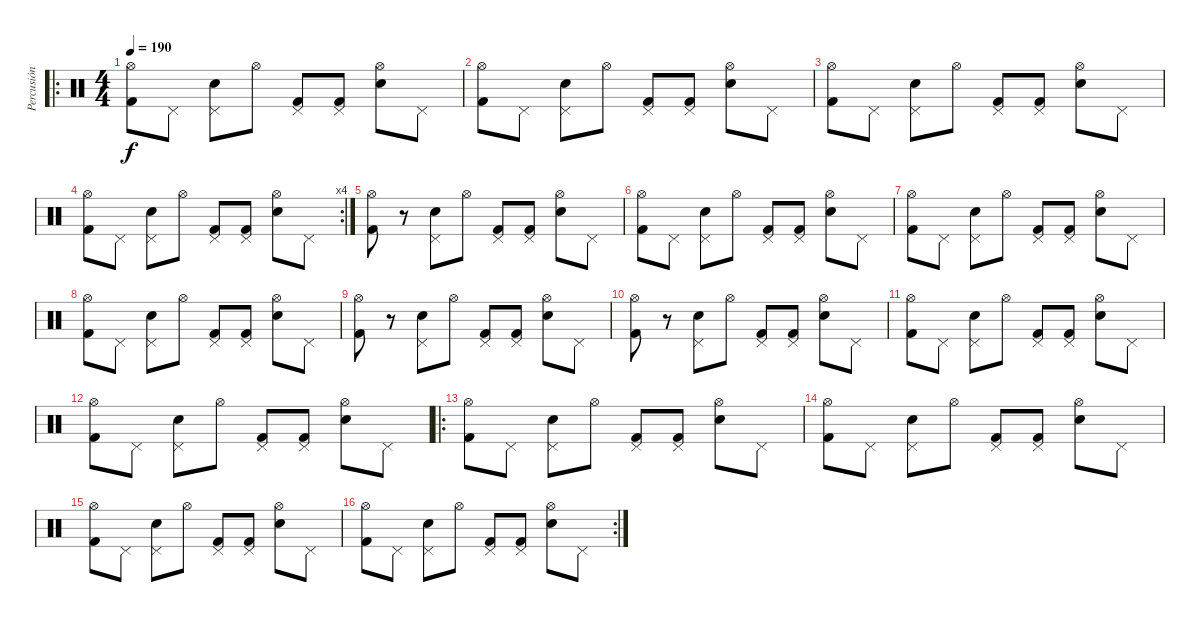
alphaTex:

\track ("Percusión" "Percusión") {instrument percussion}
\staff {score}
\articulation defaults
\ro
\ts (4 4)
\tempo 190
\clef neutral
\ks c
("Hi-Hat (open)" "Kick (hit) 2").8{dy f} "Pedal Hi-Hat (hit)".8 ("Pedal Hi-Hat (hit)" "Snare (hit) 2").8 "Hi-Hat (open)".8 ("Pedal Hi-Hat (hit)" "Kick (hit) 2").8 ("Pedal Hi-Hat (hit)" "Kick (hit) 2").8 ("Hi-Hat (open)" "Snare (hit) 2").8 "Pedal Hi-Hat (hit)".8 |
("Hi-Hat (open)" "Kick (hit) 2").8 "Pedal Hi-Hat (hit)".8 ("Pedal Hi-Hat (hit)" "Snare (hit) 2").8 "Hi-Hat (open)".8 ("Pedal Hi-Hat (hit)" "Kick (hit) 2").8 ("Pedal Hi-Hat (hit)" "Kick (hit) 2").8 ("Hi-Hat (open)" "Snare (hit) 2").8 "Pedal Hi-Hat (hit)".8 |
("Hi-Hat (open)" "Kick (hit) 2").8 "Pedal Hi-Hat (hit)".8 ("Pedal Hi-Hat (hit)" "Snare (hit) 2").8 "Hi-Hat (open)".8 ("Pedal Hi-Hat (hit)" "Kick (hit) 2").8 ("Pedal Hi-Hat (hit)" "Kick (hit) 2").8 ("Hi-Hat (open)" "Snare (hit) 2").8 "Pedal Hi-Hat (hit)".8 |
\rc 4
("Hi-Hat (open)" "Kick (hit) 2").8 "Pedal Hi-Hat (hit)".8 ("Pedal Hi-Hat (hit)" "Snare (hit) 2").8 "Hi-Hat (open)".8 ("Pedal Hi-Hat (hit)" "Kick (hit) 2").8 ("Pedal Hi-Hat (hit)" "Kick (hit) 2").8 ("Hi-Hat (open)" "Snare (hit) 2").8 "Pedal Hi-Hat (hit)".8 |
("Hi-Hat (open)" "Kick (hit) 2").8 r.8 ("Pedal Hi-Hat (hit)" "Snare (hit) 2").8 "Hi-Hat (open)".8 ("Pedal Hi-Hat (hit)" "Kick (hit) 2").8 ("Pedal Hi-Hat (hit)" "Kick (hit) 2").8 ("Hi-Hat (open)" "Snare (hit) 2").8 "Pedal Hi-Hat (hit)".8 |
("Hi-Hat (open)" "Kick (hit) 2").8 "Pedal Hi-Hat (hit)".8 ("Pedal Hi-Hat (hit)" "Snare (hit) 2").8 "Hi-Hat (open)".8 ("Pedal Hi-Hat (hit)" "Kick (hit) 2").8 ("Pedal Hi-Hat (hit)" "Kick (hit) 2").8 ("Hi-Hat (open)" "Snare (hit) 2").8 "Pedal Hi-Hat (hit)".8 |
("Hi-Hat (open)" "Kick (hit) 2").8 "Pedal Hi-Hat (hit)".8 ("Pedal Hi-Hat (hit)" "Snare (hit) 2").8 "Hi-Hat (open)".8 ("Pedal Hi-Hat (hit)" "Kick (hit) 2").8 ("Pedal Hi-Hat (hit)" "Kick (hit) 2").8 ("Hi-Hat (open)" "Snare (hit) 2").8 "Pedal Hi-Hat (hit)".8 |
("Hi-Hat (open)" "Kick (hit) 2").8 "Pedal Hi-Hat (hit)".8 ("Pedal Hi-Hat (hit)" "Snare (hit) 2").8 "Hi-Hat (open)".8 ("Pedal Hi-Hat (hit)" "Kick (hit) 2").8 ("Pedal Hi-Hat (hit)" "Kick (hit) 2").8 ("Hi-Hat (open)" "Snare (hit) 2").8 "Pedal Hi-Hat (hit)".8 |
("Hi-Hat (open)" "Kick (hit) 2").8 r.8 ("Pedal Hi-Hat (hit)" "Snare (hit) 2").8 "Hi-Hat (open)".8 ("Pedal Hi-Hat (hit)" "Kick (hit) 2").8 ("Pedal Hi-Hat (hit)" "Kick (hit) 2").8 ("Hi-Hat (open)" "Snare (hit) 2").8 "Pedal Hi-Hat (hit)".8 |
("Hi-Hat (open)" "Kick (hit) 2").8 r.8 ("Pedal Hi-Hat (hit)" "Snare (hit) 2").8 "Hi-Hat (open)".8 ("Pedal Hi-Hat (hit)" "Kick (hit) 2").8 ("Pedal Hi-Hat (hit)" "Kick (hit) 2").8 ("Hi-Hat (open)" "Snare (hit) 2").8 "Pedal Hi-Hat (hit)".8 |
("Hi-Hat (open)" "Kick (hit) 2").8 "Pedal Hi-Hat (hit)".8 ("Pedal Hi-Hat (hit)" "Snare (hit) 2").8 "Hi-Hat (open)".8 ("Pedal Hi-Hat (hit)" "Kick (hit) 2").8 ("Pedal Hi-Hat (hit)" "Kick (hit) 2").8 ("Hi-Hat (open)" "Snare (hit) 2").8 "Pedal Hi-Hat (hit)".8 |
("Hi-Hat (open)" "Kick (hit) 2").8 "Pedal Hi-Hat (hit)".8 ("Pedal Hi-Hat (hit)" "Snare (hit) 2").8 "Hi-Hat (open)".8 ("Pedal Hi-Hat (hit)" "Kick (hit) 2").8 ("Pedal Hi-Hat (hit)" "Kick (hit) 2").8 ("Hi-Hat (open)" "Snare (hit) 2").8 "Pedal Hi-Hat (hit)".8 |
\ro
("Hi-Hat (open)" "Kick (hit) 2").8 "Pedal Hi-Hat (hit)".8 ("Pedal Hi-Hat (hit)" "Snare (hit) 2").8 "Hi-Hat (open)".8 ("Pedal Hi-Hat (hit)" "Kick (hit) 2").8 ("Pedal Hi-Hat (hit)" "Kick (hit) 2").8 ("Hi-Hat (open)" "Snare (hit) 2").8 "Pedal Hi-Hat (hit)".8 |
("Hi-Hat (open)" "Kick (hit) 2").8 "Pedal Hi-Hat (hit)".8 ("Pedal Hi-Hat (hit)" "Snare (hit) 2").8 "Hi-Hat (open)".8 ("Pedal Hi-Hat (hit)" "Kick (hit) 2").8 ("Pedal Hi-Hat (hit)" "Kick (hit) 2").8 ("Hi-Hat (open)" "Snare (hit) 2").8 "Pedal Hi-Hat (hit)".8 |
("Hi-Hat (open)" "Kick (hit) 2").8 "Pedal Hi-Hat (hit)".8 ("Pedal Hi-Hat (hit)" "Snare (hit) 2").8 "Hi-Hat (open)".8 ("Pedal Hi-Hat (hit)" "Kick (hit) 2").8 ("Pedal Hi-Hat (hit)" "Kick (hit) 2").8 ("Hi-Hat (open)" "Snare (hit) 2").8 "Pedal Hi-Hat (hit)".8 |
\rc 2
("Hi-Hat (open)" "Kick (hit) 2").8 "Pedal Hi-Hat (hit)".8 ("Pedal Hi-Hat (hit)" "Snare (hit) 2").8 "Hi-Hat (open)".8 ("Pedal Hi-Hat (hit)" "Kick (hit) 2").8 ("Pedal Hi-Hat (hit)" "Kick (hit) 2").8 ("Hi-Hat (open)" "Snare (hit) 2").8 "Pedal Hi-Hat (hit)".8
